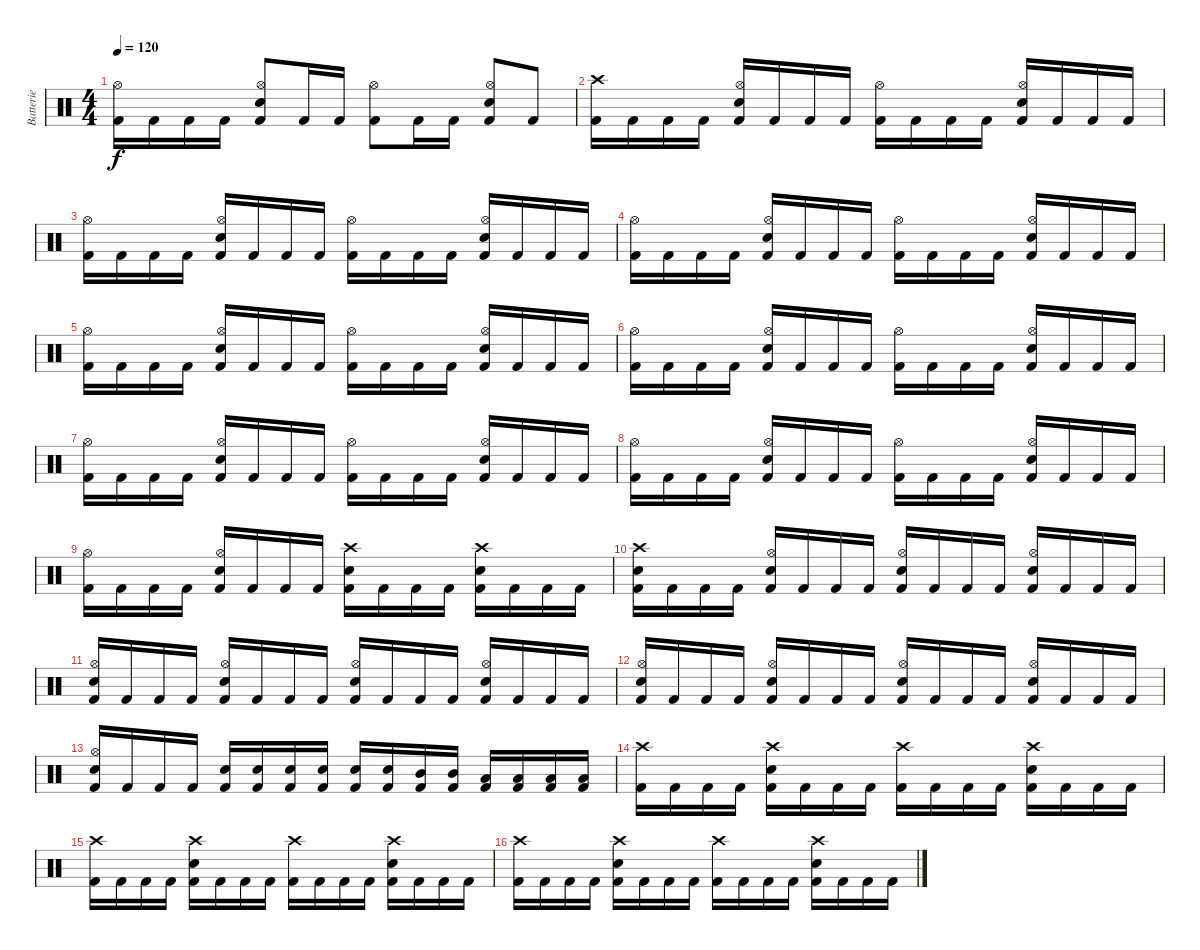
\track ("Batterie" "Batterie") {instrument percussion}
\staff {score}
\articulation defaults
\ts (4 4)
\tempo 120
\clef neutral
\ks c
("Kick (hit) 2" "Hi-Hat (open)").16{dy f} "Kick (hit) 2".16 "Kick (hit) 2".16 "Kick (hit) 2".16 ("Kick (hit) 2" "Electric Snare (hit)" "Hi-Hat (open)").8 "Kick (hit) 2".16 "Kick (hit) 2".16 ("Kick (hit) 2" "Hi-Hat (open)").8 "Kick (hit) 2".16 "Kick (hit) 2".16 ("Kick (hit) 2" "Electric Snare (hit)" "Hi-Hat (open)").8 "Kick (hit) 2".8 |
("Crash high (hit)" "Kick (hit) 2").16 "Kick (hit) 2".16 "Kick (hit) 2".16 "Kick (hit) 2".16 ("Hi-Hat (open)" "Electric Snare (hit)" "Kick (hit) 2").16 "Kick (hit) 2".16 "Kick (hit) 2".16 "Kick (hit) 2".16 ("Hi-Hat (open)" "Kick (hit) 2").16 "Kick (hit) 2".16 "Kick (hit) 2".16 "Kick (hit) 2".16 ("Hi-Hat (open)" "Electric Snare (hit)" "Kick (hit) 2").16 "Kick (hit) 2".16 "Kick (hit) 2".16 "Kick (hit) 2".16 |
("Hi-Hat (open)" "Kick (hit) 2").16 "Kick (hit) 2".16 "Kick (hit) 2".16 "Kick (hit) 2".16 ("Hi-Hat (open)" "Electric Snare (hit)" "Kick (hit) 2").16 "Kick (hit) 2".16 "Kick (hit) 2".16 "Kick (hit) 2".16 ("Hi-Hat (open)" "Kick (hit) 2").16 "Kick (hit) 2".16 "Kick (hit) 2".16 "Kick (hit) 2".16 ("Hi-Hat (open)" "Electric Snare (hit)" "Kick (hit) 2").16 "Kick (hit) 2".16 "Kick (hit) 2".16 "Kick (hit) 2".16 |
("Hi-Hat (open)" "Kick (hit) 2").16 "Kick (hit) 2".16 "Kick (hit) 2".16 "Kick (hit) 2".16 ("Hi-Hat (open)" "Electric Snare (hit)" "Kick (hit) 2").16 "Kick (hit) 2".16 "Kick (hit) 2".16 "Kick (hit) 2".16 ("Hi-Hat (open)" "Kick (hit) 2").16 "Kick (hit) 2".16 "Kick (hit) 2".16 "Kick (hit) 2".16 ("Hi-Hat (open)" "Electric Snare (hit)" "Kick (hit) 2").16 "Kick (hit) 2".16 "Kick (hit) 2".16 "Kick (hit) 2".16 |
("Hi-Hat (open)" "Kick (hit) 2").16 "Kick (hit) 2".16 "Kick (hit) 2".16 "Kick (hit) 2".16 ("Hi-Hat (open)" "Electric Snare (hit)" "Kick (hit) 2").16 "Kick (hit) 2".16 "Kick (hit) 2".16 "Kick (hit) 2".16 ("Hi-Hat (open)" "Kick (hit) 2").16 "Kick (hit) 2".16 "Kick (hit) 2".16 "Kick (hit) 2".16 ("Hi-Hat (open)" "Electric Snare (hit)" "Kick (hit) 2").16 "Kick (hit) 2".16 "Kick (hit) 2".16 "Kick (hit) 2".16 |
("Hi-Hat (open)" "Kick (hit) 2").16 "Kick (hit) 2".16 "Kick (hit) 2".16 "Kick (hit) 2".16 ("Hi-Hat (open)" "Electric Snare (hit)" "Kick (hit) 2").16 "Kick (hit) 2".16 "Kick (hit) 2".16 "Kick (hit) 2".16 ("Hi-Hat (open)" "Kick (hit) 2").16 "Kick (hit) 2".16 "Kick (hit) 2".16 "Kick (hit) 2".16 ("Hi-Hat (open)" "Electric Snare (hit)" "Kick (hit) 2").16 "Kick (hit) 2".16 "Kick (hit) 2".16 "Kick (hit) 2".16 |
("Hi-Hat (open)" "Kick (hit) 2").16 "Kick (hit) 2".16 "Kick (hit) 2".16 "Kick (hit) 2".16 ("Hi-Hat (open)" "Electric Snare (hit)" "Kick (hit) 2").16 "Kick (hit) 2".16 "Kick (hit) 2".16 "Kick (hit) 2".16 ("Hi-Hat (open)" "Kick (hit) 2").16 "Kick (hit) 2".16 "Kick (hit) 2".16 "Kick (hit) 2".16 ("Hi-Hat (open)" "Electric Snare (hit)" "Kick (hit) 2").16 "Kick (hit) 2".16 "Kick (hit) 2".16 "Kick (hit) 2".16 |
("Hi-Hat (open)" "Kick (hit) 2").16 "Kick (hit) 2".16 "Kick (hit) 2".16 "Kick (hit) 2".16 ("Hi-Hat (open)" "Electric Snare (hit)" "Kick (hit) 2").16 "Kick (hit) 2".16 "Kick (hit) 2".16 "Kick (hit) 2".16 ("Hi-Hat (open)" "Kick (hit) 2").16 "Kick (hit) 2".16 "Kick (hit) 2".16 "Kick (hit) 2".16 ("Hi-Hat (open)" "Electric Snare (hit)" "Kick (hit) 2").16 "Kick (hit) 2".16 "Kick (hit) 2".16 "Kick (hit) 2".16 |
("Hi-Hat (open)" "Kick (hit) 2").16 "Kick (hit) 2".16 "Kick (hit) 2".16 "Kick (hit) 2".16 ("Hi-Hat (open)" "Electric Snare (hit)" "Kick (hit) 2").16 "Kick (hit) 2".16 "Kick (hit) 2".16 "Kick (hit) 2".16 ("Crash high (hit)" "Electric Snare (hit)" "Kick (hit) 2").16 "Kick (hit) 2".16 "Kick (hit) 2".16 "Kick (hit) 2".16 ("Crash high (hit)" "Electric Snare (hit)" "Kick (hit) 2").16 "Kick (hit) 2".16 "Kick (hit) 2".16 "Kick (hit) 2".16 |
("Crash high (hit)" "Electric Snare (hit)" "Kick (hit) 2").16 "Kick (hit) 2".16 "Kick (hit) 2".16 "Kick (hit) 2".16 ("Hi-Hat (open)" "Electric Snare (hit)" "Kick (hit) 2").16 "Kick (hit) 2".16 "Kick (hit) 2".16 "Kick (hit) 2".16 ("Hi-Hat (open)" "Electric Snare (hit)" "Kick (hit) 2").16 "Kick (hit) 2".16 "Kick (hit) 2".16 "Kick (hit) 2".16 ("Hi-Hat (open)" "Electric Snare (hit)" "Kick (hit) 2").16 "Kick (hit) 2".16 "Kick (hit) 2".16 "Kick (hit) 2".16 |
("Hi-Hat (open)" "Electric Snare (hit)" "Kick (hit) 2").16 "Kick (hit) 2".16 "Kick (hit) 2".16 "Kick (hit) 2".16 ("Hi-Hat (open)" "Electric Snare (hit)" "Kick (hit) 2").16 "Kick (hit) 2".16 "Kick (hit) 2".16 "Kick (hit) 2".16 ("Hi-Hat (open)" "Electric Snare (hit)" "Kick (hit) 2").16 "Kick (hit) 2".16 "Kick (hit) 2".16 "Kick (hit) 2".16 ("Hi-Hat (open)" "Electric Snare (hit)" "Kick (hit) 2").16 "Kick (hit) 2".16 "Kick (hit) 2".16 "Kick (hit) 2".16 |
("Hi-Hat (open)" "Electric Snare (hit)" "Kick (hit) 2").16 "Kick (hit) 2".16 "Kick (hit) 2".16 "Kick (hit) 2".16 ("Hi-Hat (open)" "Electric Snare (hit)" "Kick (hit) 2").16 "Kick (hit) 2".16 "Kick (hit) 2".16 "Kick (hit) 2".16 ("Hi-Hat (open)" "Electric Snare (hit)" "Kick (hit) 2").16 "Kick (hit) 2".16 "Kick (hit) 2".16 "Kick (hit) 2".16 ("Hi-Hat (open)" "Electric Snare (hit)" "Kick (hit) 2").16 "Kick (hit) 2".16 "Kick (hit) 2".16 "Kick (hit) 2".16 |
("Hi-Hat (open)" "Electric Snare (hit)" "Kick (hit) 2").16 "Kick (hit) 2".16 "Kick (hit) 2".16 "Kick (hit) 2".16 ("Electric Snare (hit)" "Kick (hit) 2").16 ("Electric Snare (hit)" "Kick (hit) 2").16 ("Electric Snare (hit)" "Kick (hit) 2").16 ("Electric Snare (hit)" "Kick (hit) 2").16 ("Electric Snare (hit)" "Kick (hit) 2").16 ("Electric Snare (hit)" "Kick (hit) 2").16 ("Mid Tom (hit)" "Kick (hit) 2").16 ("Mid Tom (hit)" "Kick (hit) 2").16 ("Low Tom (hit)" "Kick (hit) 2").16 ("Low Tom (hit)" "Kick (hit) 2").16 ("Low Floor Tom (hit)" "Kick (hit) 2").16 ("Low Floor Tom (hit)" "Kick (hit) 2").16 |
("Crash high (hit)" "Kick (hit) 2").16 "Kick (hit) 2".16 "Kick (hit) 2".16 "Kick (hit) 2".16 ("Crash high (hit)" "Electric Snare (hit)" "Kick (hit) 2").16 "Kick (hit) 2".16 "Kick (hit) 2".16 "Kick (hit) 2".16 ("Crash high (hit)" "Kick (hit) 2").16 "Kick (hit) 2".16 "Kick (hit) 2".16 "Kick (hit) 2".16 ("Crash high (hit)" "Electric Snare (hit)" "Kick (hit) 2").16 "Kick (hit) 2".16 "Kick (hit) 2".16 "Kick (hit) 2".16 |
("Crash high (hit)" "Kick (hit) 2").16 "Kick (hit) 2".16 "Kick (hit) 2".16 "Kick (hit) 2".16 ("Crash high (hit)" "Electric Snare (hit)" "Kick (hit) 2").16 "Kick (hit) 2".16 "Kick (hit) 2".16 "Kick (hit) 2".16 ("Crash high (hit)" "Kick (hit) 2").16 "Kick (hit) 2".16 "Kick (hit) 2".16 "Kick (hit) 2".16 ("Crash high (hit)" "Electric Snare (hit)" "Kick (hit) 2").16 "Kick (hit) 2".16 "Kick (hit) 2".16 "Kick (hit) 2".16 |
("Crash high (hit)" "Kick (hit) 2").16 "Kick (hit) 2".16 "Kick (hit) 2".16 "Kick (hit) 2".16 ("Crash high (hit)" "Electric Snare (hit)" "Kick (hit) 2").16 "Kick (hit) 2".16 "Kick (hit) 2".16 "Kick (hit) 2".16 ("Crash high (hit)" "Kick (hit) 2").16 "Kick (hit) 2".16 "Kick (hit) 2".16 "Kick (hit) 2".16 ("Crash high (hit)" "Electric Snare (hit)" "Kick (hit) 2").16 "Kick (hit) 2".16 "Kick (hit) 2".16 "Kick (hit) 2".16
